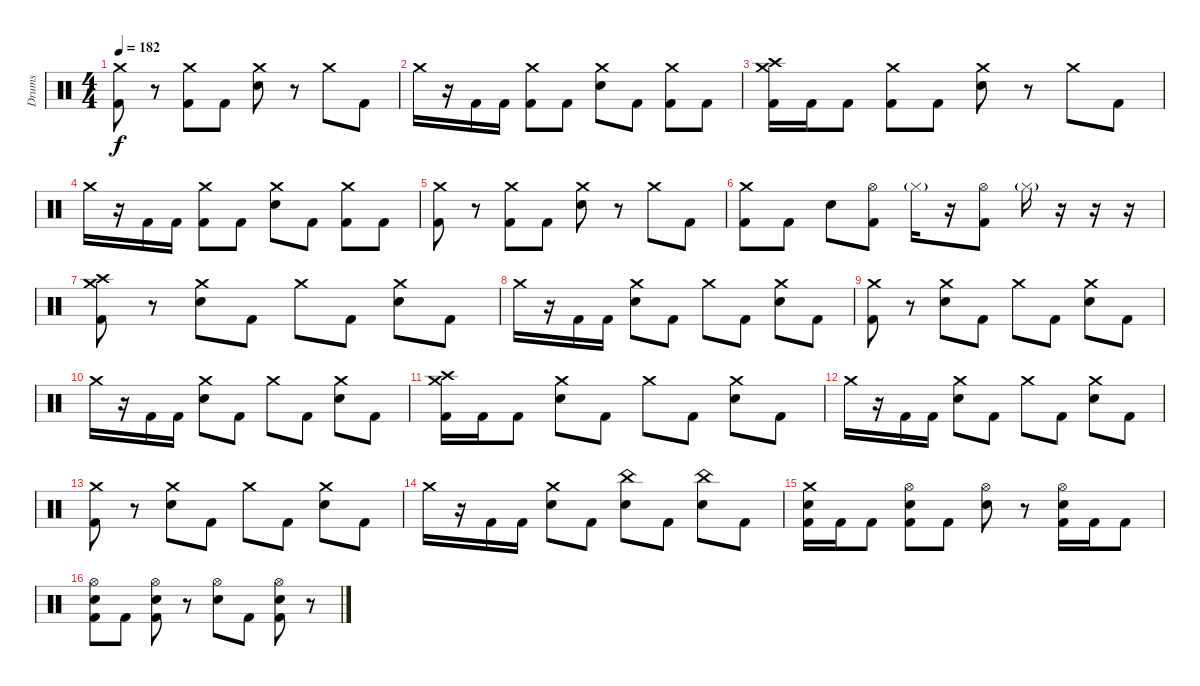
\track ("Drums" "Drums") {instrument percussion}
\staff {score}
\articulation defaults
\ts (4 4)
\tempo 182
\clef neutral
\ks c
("Crash medium (hit)" "Kick (hit) 2").8{dy f} r.8 ("Crash medium (hit)" "Kick (hit) 2").8 "Kick (hit) 2".8 ("Crash medium (hit)" "Electric Snare (hit)").8 r.8 "Crash medium (hit)".8 "Kick (hit) 2".8 |
"Crash medium (hit)".16 r.16 "Kick (hit) 2".16 "Kick (hit) 2".16 ("Crash medium (hit)" "Kick (hit) 2").8 "Kick (hit) 2".8 ("Crash medium (hit)" "Electric Snare (hit)").8 "Kick (hit) 2".8 ("Crash medium (hit)" "Kick (hit) 2").8 "Kick (hit) 2".8 |
("Crash medium (hit)" "Crash high (hit)" "Kick (hit) 2").16 "Kick (hit) 2".16 "Kick (hit) 2".8 ("Crash medium (hit)" "Kick (hit) 2").8 "Kick (hit) 2".8 ("Crash medium (hit)" "Electric Snare (hit)").8 r.8 "Crash medium (hit)".8 "Kick (hit) 2".8 |
"Crash medium (hit)".16 r.16 "Kick (hit) 2".16 "Kick (hit) 2".16 ("Crash medium (hit)" "Kick (hit) 2").8 "Kick (hit) 2".8 ("Crash medium (hit)" "Electric Snare (hit)").8 "Kick (hit) 2".8 ("Crash medium (hit)" "Kick (hit) 2").8 "Kick (hit) 2".8 |
("Crash medium (hit)" "Kick (hit) 2").8 r.8 ("Crash medium (hit)" "Kick (hit) 2").8 "Kick (hit) 2".8 ("Crash medium (hit)" "Electric Snare (hit)").8 r.8 "Crash medium (hit)".8 "Kick (hit) 2".8 |
("Crash medium (hit)" "Kick (hit) 2").8 "Kick (hit) 2".8 "Electric Snare (hit)".8 ("Hi-Hat (open)" "Kick (hit) 2").8 "Hi-Hat (closed)"{g}.16 r.16 ("Hi-Hat (open)" "Kick (hit) 2").8 "Hi-Hat (closed)"{g}.16 r.16 r.16 r.16 |
("Crash medium (hit)" "Crash high (hit)" "Kick (hit) 2").8 r.8 ("Crash medium (hit)" "Electric Snare (hit)").8 "Kick (hit) 2".8 "Crash medium (hit)".8 "Kick (hit) 2".8 ("Crash medium (hit)" "Electric Snare (hit)").8 "Kick (hit) 2".8 |
"Crash medium (hit)".16 r.16 "Kick (hit) 2".16 "Kick (hit) 2".16 ("Crash medium (hit)" "Electric Snare (hit)").8 "Kick (hit) 2".8 "Crash medium (hit)".8 "Kick (hit) 2".8 ("Crash medium (hit)" "Electric Snare (hit)").8 "Kick (hit) 2".8 |
("Crash medium (hit)" "Kick (hit) 2").8 r.8 ("Crash medium (hit)" "Electric Snare (hit)").8 "Kick (hit) 2".8 "Crash medium (hit)".8 "Kick (hit) 2".8 ("Crash medium (hit)" "Electric Snare (hit)").8 "Kick (hit) 2".8 |
"Crash medium (hit)".16 r.16 "Kick (hit) 2".16 "Kick (hit) 2".16 ("Crash medium (hit)" "Electric Snare (hit)").8 "Kick (hit) 2".8 "Crash medium (hit)".8 "Kick (hit) 2".8 ("Crash medium (hit)" "Electric Snare (hit)").8 "Kick (hit) 2".8 |
("Crash medium (hit)" "Crash high (hit)" "Kick (hit) 2").16 "Kick (hit) 2".16 "Kick (hit) 2".8 ("Crash medium (hit)" "Electric Snare (hit)").8 "Kick (hit) 2".8 "Crash medium (hit)".8 "Kick (hit) 2".8 ("Crash medium (hit)" "Electric Snare (hit)").8 "Kick (hit) 2".8 |
"Crash medium (hit)".16 r.16 "Kick (hit) 2".16 "Kick (hit) 2".16 ("Crash medium (hit)" "Electric Snare (hit)").8 "Kick (hit) 2".8 "Crash medium (hit)".8 "Kick (hit) 2".8 ("Crash medium (hit)" "Electric Snare (hit)").8 "Kick (hit) 2".8 |
("Crash medium (hit)" "Kick (hit) 2").8 r.8 ("Crash medium (hit)" "Electric Snare (hit)").8 "Kick (hit) 2".8 "Crash medium (hit)".8 "Kick (hit) 2".8 ("Crash medium (hit)" "Electric Snare (hit)").8 "Kick (hit) 2".8 |
"Crash medium (hit)".16 r.16 "Kick (hit) 2".16 "Kick (hit) 2".16 ("Crash medium (hit)" "Electric Snare (hit)").8 "Kick (hit) 2".8 ("China (hit)" "Electric Snare (hit)").8 "Kick (hit) 2".8 ("China (hit)" "Electric Snare (hit)").8 "Kick (hit) 2".8 |
("Crash medium (hit)" "Electric Snare (hit)" "Kick (hit) 2").16 "Kick (hit) 2".16 "Kick (hit) 2".8 ("Hi-Hat (open)" "Electric Snare (hit)" "Kick (hit) 2").8 "Kick (hit) 2".8 ("Hi-Hat (open)" "Electric Snare (hit)").8 r.8 ("Hi-Hat (open)" "Electric Snare (hit)" "Kick (hit) 2").16 "Kick (hit) 2".16 "Kick (hit) 2".8 |
("Hi-Hat (open)" "Electric Snare (hit)" "Kick (hit) 2").8 "Kick (hit) 2".8 ("Hi-Hat (open)" "Electric Snare (hit)" "Kick (hit) 2").8 r.8 ("Hi-Hat (open)" "Electric Snare (hit)").8 "Kick (hit) 2".8 ("Hi-Hat (open)" "Electric Snare (hit)" "Kick (hit) 2").8 r.8
